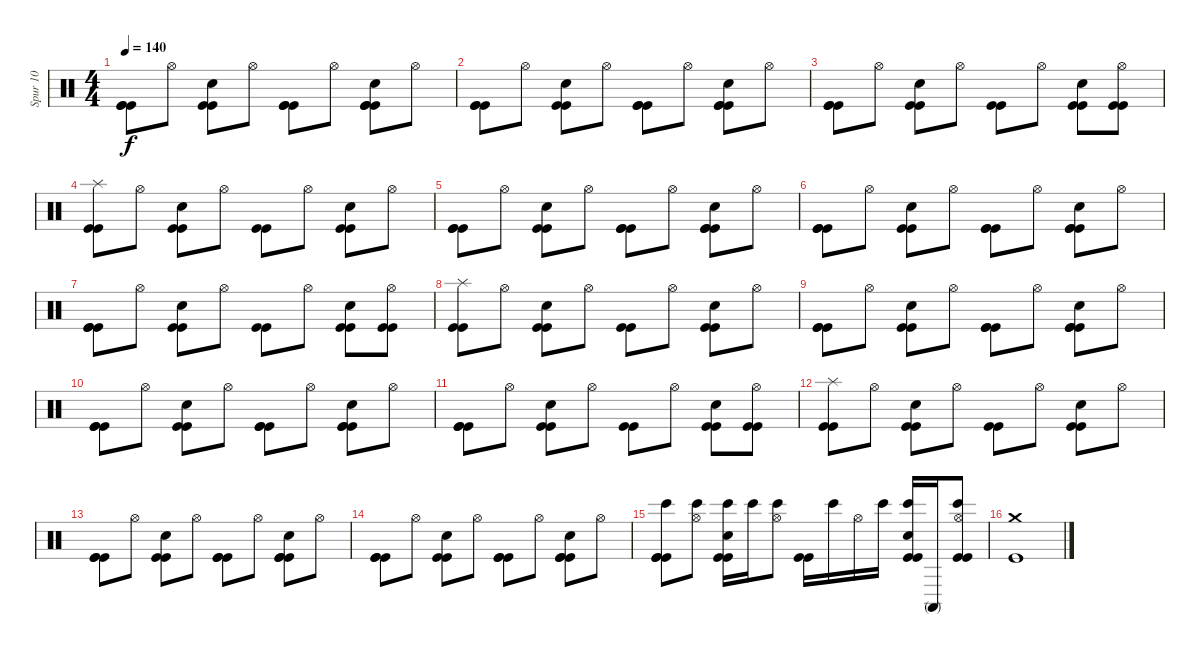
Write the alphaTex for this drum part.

\track ("Spur 10" "Spur 10") {instrument percussion}
\staff {score}
\articulation defaults
\ts (4 4)
\tempo 140
\clef neutral
\ks c
("Kick (hit)" "Kick (hit)" "Kick (hit)").8{dy f} "Hi-Hat (open)".8 ("Kick (hit)" "Kick (hit)" "Hand Clap (hit)").8 "Hi-Hat (open)".8 ("Kick (hit)" "Kick (hit)" "Kick (hit)").8 "Hi-Hat (open)".8 ("Kick (hit)" "Kick (hit)" "Hand Clap (hit)" "Kick (hit)").8 "Hi-Hat (open)".8 |
("Kick (hit)" "Kick (hit)" "Kick (hit)").8 "Hi-Hat (open)".8 ("Kick (hit)" "Kick (hit)" "Hand Clap (hit)").8 "Hi-Hat (open)".8 ("Kick (hit)" "Kick (hit)" "Kick (hit)").8 "Hi-Hat (open)".8 ("Kick (hit)" "Kick (hit)" "Hand Clap (hit)" "Kick (hit)").8 "Hi-Hat (open)".8 |
("Kick (hit)" "Kick (hit)" "Kick (hit)").8 "Hi-Hat (open)".8 ("Kick (hit)" "Kick (hit)" "Hand Clap (hit)").8 "Hi-Hat (open)".8 ("Kick (hit)" "Kick (hit)").8 "Hi-Hat (open)".8 ("Kick (hit)" "Hand Clap (hit)" "Kick (hit)").8 ("Kick (hit)" "Kick (hit)" "Hi-Hat (open)").8 |
("Kick (hit)" "Kick (hit)" "Splash (hit)").8 "Hi-Hat (open)".8 ("Kick (hit)" "Hand Clap (hit)" "Kick (hit)").8 "Hi-Hat (open)".8 ("Kick (hit)" "Kick (hit)").8 "Hi-Hat (open)".8 ("Kick (hit)" "Hand Clap (hit)" "Kick (hit)").8 "Hi-Hat (open)".8 |
("Kick (hit)" "Kick (hit)" "Kick (hit)").8 "Hi-Hat (open)".8 ("Kick (hit)" "Kick (hit)" "Hand Clap (hit)").8 "Hi-Hat (open)".8 ("Kick (hit)" "Kick (hit)" "Kick (hit)").8 "Hi-Hat (open)".8 ("Kick (hit)" "Kick (hit)" "Hand Clap (hit)" "Kick (hit)").8 "Hi-Hat (open)".8 |
("Kick (hit)" "Kick (hit)" "Kick (hit)").8 "Hi-Hat (open)".8 ("Kick (hit)" "Kick (hit)" "Hand Clap (hit)").8 "Hi-Hat (open)".8 ("Kick (hit)" "Kick (hit)" "Kick (hit)").8 "Hi-Hat (open)".8 ("Kick (hit)" "Kick (hit)" "Hand Clap (hit)" "Kick (hit)").8 "Hi-Hat (open)".8 |
("Kick (hit)" "Kick (hit)" "Kick (hit)").8 "Hi-Hat (open)".8 ("Kick (hit)" "Kick (hit)" "Hand Clap (hit)").8 "Hi-Hat (open)".8 ("Kick (hit)" "Kick (hit)").8 "Hi-Hat (open)".8 ("Kick (hit)" "Hand Clap (hit)" "Kick (hit)").8 ("Kick (hit)" "Kick (hit)" "Hi-Hat (open)").8 |
("Kick (hit)" "Kick (hit)" "Splash (hit)").8 "Hi-Hat (open)".8 ("Kick (hit)" "Hand Clap (hit)" "Kick (hit)").8 "Hi-Hat (open)".8 ("Kick (hit)" "Kick (hit)").8 "Hi-Hat (open)".8 ("Kick (hit)" "Hand Clap (hit)" "Kick (hit)").8 "Hi-Hat (open)".8 |
("Kick (hit)" "Kick (hit)" "Kick (hit)").8 "Hi-Hat (open)".8 ("Kick (hit)" "Kick (hit)" "Hand Clap (hit)").8 "Hi-Hat (open)".8 ("Kick (hit)" "Kick (hit)" "Kick (hit)").8 "Hi-Hat (open)".8 ("Kick (hit)" "Kick (hit)" "Hand Clap (hit)" "Kick (hit)").8 "Hi-Hat (open)".8 |
("Kick (hit)" "Kick (hit)" "Kick (hit)").8 "Hi-Hat (open)".8 ("Kick (hit)" "Kick (hit)" "Hand Clap (hit)").8 "Hi-Hat (open)".8 ("Kick (hit)" "Kick (hit)" "Kick (hit)").8 "Hi-Hat (open)".8 ("Kick (hit)" "Kick (hit)" "Hand Clap (hit)" "Kick (hit)").8 "Hi-Hat (open)".8 |
("Kick (hit)" "Kick (hit)" "Kick (hit)").8 "Hi-Hat (open)".8 ("Kick (hit)" "Kick (hit)" "Hand Clap (hit)").8 "Hi-Hat (open)".8 ("Kick (hit)" "Kick (hit)").8 "Hi-Hat (open)".8 ("Kick (hit)" "Hand Clap (hit)" "Kick (hit)").8 ("Kick (hit)" "Kick (hit)" "Hi-Hat (open)").8 |
("Kick (hit)" "Kick (hit)" "Splash (hit)").8 "Hi-Hat (open)".8 ("Kick (hit)" "Hand Clap (hit)" "Kick (hit)").8 "Hi-Hat (open)".8 ("Kick (hit)" "Kick (hit)").8 "Hi-Hat (open)".8 ("Kick (hit)" "Hand Clap (hit)" "Kick (hit)").8 "Hi-Hat (open)".8 |
("Kick (hit)" "Kick (hit)" "Kick (hit)").8 "Hi-Hat (open)".8 ("Kick (hit)" "Kick (hit)" "Hand Clap (hit)").8 "Hi-Hat (open)".8 ("Kick (hit)" "Kick (hit)" "Kick (hit)").8 "Hi-Hat (open)".8 ("Kick (hit)" "Kick (hit)" "Hand Clap (hit)" "Kick (hit)").8 "Hi-Hat (open)".8 |
("Kick (hit)" "Kick (hit)" "Kick (hit)").8 "Hi-Hat (open)".8 ("Kick (hit)" "Kick (hit)" "Hand Clap (hit)").8 "Hi-Hat (open)".8 ("Kick (hit)" "Kick (hit)" "Kick (hit)").8 "Hi-Hat (open)".8 ("Kick (hit)" "Kick (hit)" "Hand Clap (hit)" "Kick (hit)").8 "Hi-Hat (open)".8 |
("Bongo High (hit)" "Kick (hit)" "Kick (hit)" "Kick (hit)").8 ("Bongo High (hit)" "Hi-Hat (open)").8 ("Bongo High (hit)" "Kick (hit)" "Kick (hit)" "Hand Clap (hit)").16 "Bongo High (hit)".16 ("Bongo High (hit)" "Hi-Hat (open)").8 ("Kick (hit)" "Kick (hit)").16 "Bongo High (hit)".16 "Hi-Hat (open)".16 "Bongo High (hit)".16 ("Bongo High (hit)" "Kick (hit)" "Hand Clap (hit)" "Kick (hit)").16 "Conga high (mute)".16 ("Bongo High (hit)" "Kick (hit)" "Kick (hit)" "Hi-Hat (open)").8 |
("Crash medium (hit)" "Kick (hit)").1
